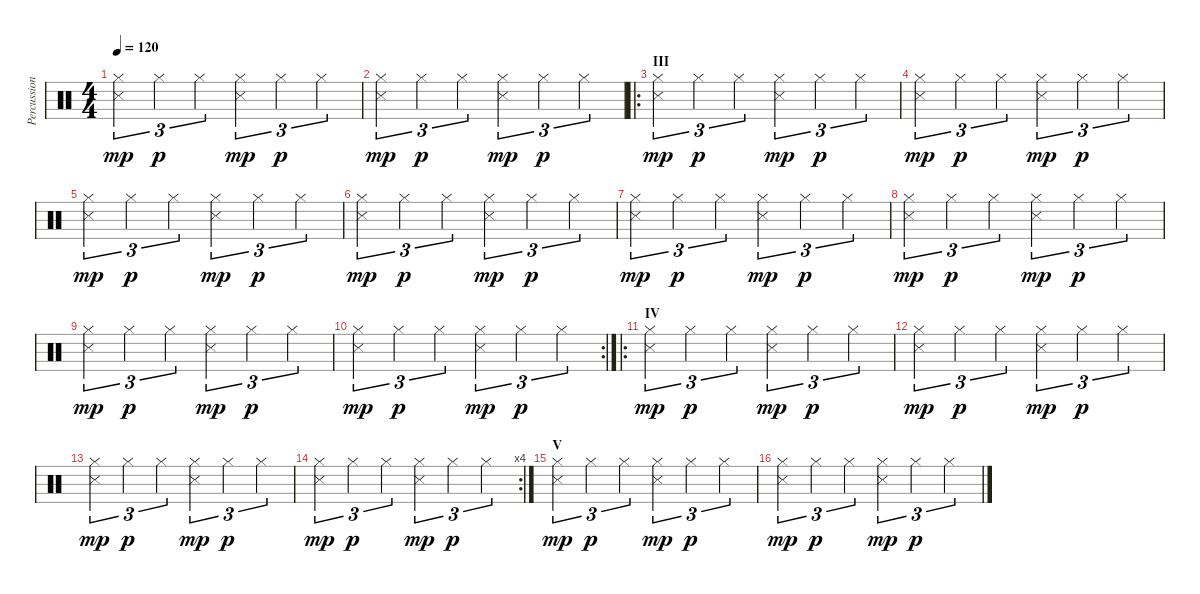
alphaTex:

\track ("Percussion" "Percussion") {instrument percussion}
\staff {score}
\articulation defaults
\ts (4 4)
\tempo 120
\clef neutral
\ks c
("Hi-Hat (closed)" "Snare (side stick) 3").4{tu (3 2) dy mp} "Hi-Hat (closed)".4{tu (3 2) dy p} "Hi-Hat (closed)".4{tu (3 2)} ("Hi-Hat (closed)" "Snare (side stick) 3").4{tu (3 2) dy mp} "Hi-Hat (closed)".4{tu (3 2) dy p} "Hi-Hat (closed)".4{tu (3 2)} |
("Hi-Hat (closed)" "Snare (side stick) 3").4{tu (3 2) dy mp} "Hi-Hat (closed)".4{tu (3 2) dy p} "Hi-Hat (closed)".4{tu (3 2)} ("Hi-Hat (closed)" "Snare (side stick) 3").4{tu (3 2) dy mp} "Hi-Hat (closed)".4{tu (3 2) dy p} "Hi-Hat (closed)".4{tu (3 2)} |
\ro
\section ("" "III")
("Hi-Hat (closed)" "Snare (side stick) 3").4{tu (3 2) dy mp} "Hi-Hat (closed)".4{tu (3 2) dy p} "Hi-Hat (closed)".4{tu (3 2)} ("Hi-Hat (closed)" "Snare (side stick) 3").4{tu (3 2) dy mp} "Hi-Hat (closed)".4{tu (3 2) dy p} "Hi-Hat (closed)".4{tu (3 2)} |
("Hi-Hat (closed)" "Snare (side stick) 3").4{tu (3 2) dy mp} "Hi-Hat (closed)".4{tu (3 2) dy p} "Hi-Hat (closed)".4{tu (3 2)} ("Hi-Hat (closed)" "Snare (side stick) 3").4{tu (3 2) dy mp} "Hi-Hat (closed)".4{tu (3 2) dy p} "Hi-Hat (closed)".4{tu (3 2)} |
("Hi-Hat (closed)" "Snare (side stick) 3").4{tu (3 2) dy mp} "Hi-Hat (closed)".4{tu (3 2) dy p} "Hi-Hat (closed)".4{tu (3 2)} ("Hi-Hat (closed)" "Snare (side stick) 3").4{tu (3 2) dy mp} "Hi-Hat (closed)".4{tu (3 2) dy p} "Hi-Hat (closed)".4{tu (3 2)} |
("Hi-Hat (closed)" "Snare (side stick) 3").4{tu (3 2) dy mp} "Hi-Hat (closed)".4{tu (3 2) dy p} "Hi-Hat (closed)".4{tu (3 2)} ("Hi-Hat (closed)" "Snare (side stick) 3").4{tu (3 2) dy mp} "Hi-Hat (closed)".4{tu (3 2) dy p} "Hi-Hat (closed)".4{tu (3 2)} |
("Hi-Hat (closed)" "Snare (side stick) 3").4{tu (3 2) dy mp} "Hi-Hat (closed)".4{tu (3 2) dy p} "Hi-Hat (closed)".4{tu (3 2)} ("Hi-Hat (closed)" "Snare (side stick) 3").4{tu (3 2) dy mp} "Hi-Hat (closed)".4{tu (3 2) dy p} "Hi-Hat (closed)".4{tu (3 2)} |
("Hi-Hat (closed)" "Snare (side stick) 3").4{tu (3 2) dy mp} "Hi-Hat (closed)".4{tu (3 2) dy p} "Hi-Hat (closed)".4{tu (3 2)} ("Hi-Hat (closed)" "Snare (side stick) 3").4{tu (3 2) dy mp} "Hi-Hat (closed)".4{tu (3 2) dy p} "Hi-Hat (closed)".4{tu (3 2)} |
("Hi-Hat (closed)" "Snare (side stick) 3").4{tu (3 2) dy mp} "Hi-Hat (closed)".4{tu (3 2) dy p} "Hi-Hat (closed)".4{tu (3 2)} ("Hi-Hat (closed)" "Snare (side stick) 3").4{tu (3 2) dy mp} "Hi-Hat (closed)".4{tu (3 2) dy p} "Hi-Hat (closed)".4{tu (3 2)} |
\rc 2
("Hi-Hat (closed)" "Snare (side stick) 3").4{tu (3 2) dy mp} "Hi-Hat (closed)".4{tu (3 2) dy p} "Hi-Hat (closed)".4{tu (3 2)} ("Hi-Hat (closed)" "Snare (side stick) 3").4{tu (3 2) dy mp} "Hi-Hat (closed)".4{tu (3 2) dy p} "Hi-Hat (closed)".4{tu (3 2)} |
\ro
\section ("" "IV")
("Hi-Hat (closed)" "Snare (side stick) 3").4{tu (3 2) dy mp} "Hi-Hat (closed)".4{tu (3 2) dy p} "Hi-Hat (closed)".4{tu (3 2)} ("Hi-Hat (closed)" "Snare (side stick) 3").4{tu (3 2) dy mp} "Hi-Hat (closed)".4{tu (3 2) dy p} "Hi-Hat (closed)".4{tu (3 2)} |
("Hi-Hat (closed)" "Snare (side stick) 3").4{tu (3 2) dy mp} "Hi-Hat (closed)".4{tu (3 2) dy p} "Hi-Hat (closed)".4{tu (3 2)} ("Hi-Hat (closed)" "Snare (side stick) 3").4{tu (3 2) dy mp} "Hi-Hat (closed)".4{tu (3 2) dy p} "Hi-Hat (closed)".4{tu (3 2)} |
("Hi-Hat (closed)" "Snare (side stick) 3").4{tu (3 2) dy mp} "Hi-Hat (closed)".4{tu (3 2) dy p} "Hi-Hat (closed)".4{tu (3 2)} ("Hi-Hat (closed)" "Snare (side stick) 3").4{tu (3 2) dy mp} "Hi-Hat (closed)".4{tu (3 2) dy p} "Hi-Hat (closed)".4{tu (3 2)} |
\rc 4
("Hi-Hat (closed)" "Snare (side stick) 3").4{tu (3 2) dy mp} "Hi-Hat (closed)".4{tu (3 2) dy p} "Hi-Hat (closed)".4{tu (3 2)} ("Hi-Hat (closed)" "Snare (side stick) 3").4{tu (3 2) dy mp} "Hi-Hat (closed)".4{tu (3 2) dy p} "Hi-Hat (closed)".4{tu (3 2)} |
\section ("" "V")
("Hi-Hat (closed)" "Snare (side stick) 3").4{tu (3 2) dy mp} "Hi-Hat (closed)".4{tu (3 2) dy p} "Hi-Hat (closed)".4{tu (3 2)} ("Hi-Hat (closed)" "Snare (side stick) 3").4{tu (3 2) dy mp} "Hi-Hat (closed)".4{tu (3 2) dy p} "Hi-Hat (closed)".4{tu (3 2)} |
("Hi-Hat (closed)" "Snare (side stick) 3").4{tu (3 2) dy mp} "Hi-Hat (closed)".4{tu (3 2) dy p} "Hi-Hat (closed)".4{tu (3 2)} ("Hi-Hat (closed)" "Snare (side stick) 3").4{tu (3 2) dy mp} "Hi-Hat (closed)".4{tu (3 2) dy p} "Hi-Hat (closed)".4{tu (3 2) volume 5}
